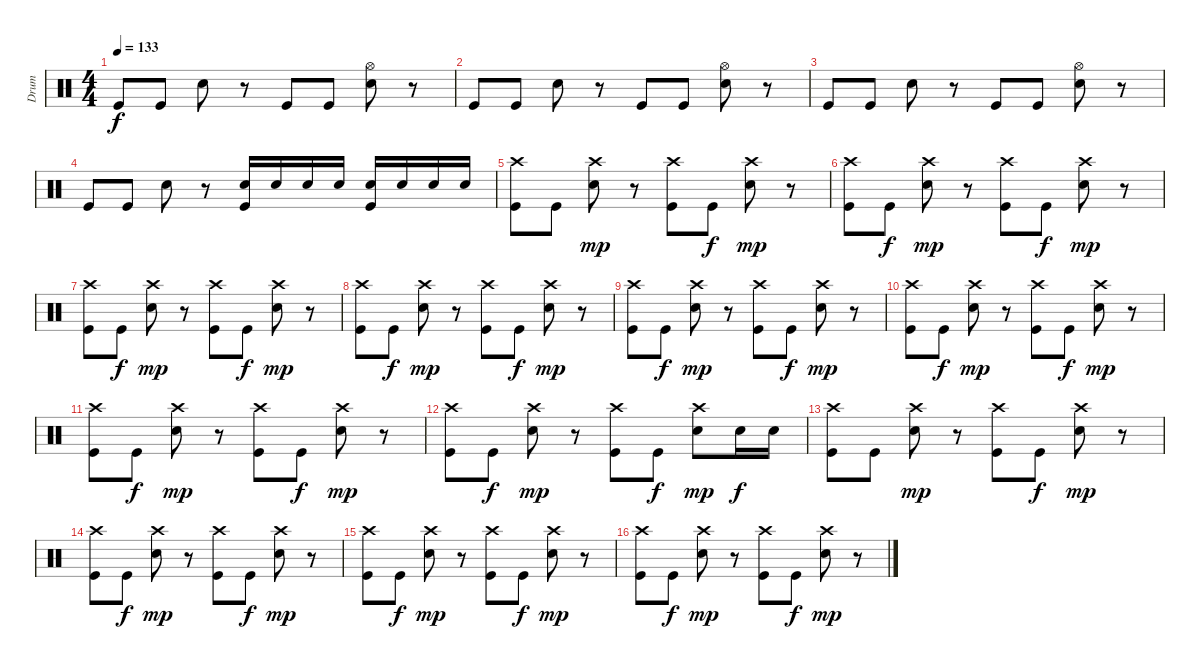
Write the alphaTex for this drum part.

\track ("Drum" "Drum") {instrument percussion}
\staff {score}
\articulation defaults
\ts (4 4)
\tempo 133
\clef neutral
\ks c "Kick (hit)".8{dy f} "Kick (hit)".8 "Snare (hit) 2".8
r.8 "Kick (hit)".8 "Kick (hit)".8 ("Hi-Hat (open)" "Snare (hit) 2").8 r.8 |
"Kick (hit)".8 "Kick (hit)".8 "Snare (hit) 2".8 r.8 "Kick (hit)".8 "Kick (hit)".8 ("Hi-Hat (open)" "Snare (hit) 2").8 r.8 |
"Kick (hit)".8 "Kick (hit)".8 "Snare (hit) 2".8 r.8 "Kick (hit)".8 "Kick (hit)".8 ("Hi-Hat (open)" "Snare (hit) 2").8 r.8 |
"Kick (hit)".8 "Kick (hit)".8 "Snare (hit) 2".8 r.8 ("Snare (hit) 2" "Kick (hit)").16 "Snare (hit) 2".16 "Snare (hit) 2".16 "Snare (hit) 2".16 ("Snare (hit) 2" "Kick (hit)").16 "Snare (hit) 2".16 "Snare (hit) 2".16 "Snare (hit) 2".16 |
("Crash high (hit)" "Kick (hit)").8 "Kick (hit)".8 ("Crash high (hit)" "Snare (hit) 2").8{dy mp} r.8 ("Crash high (hit)" "Kick (hit)").8 "Kick (hit)".8{dy f} ("Crash high (hit)" "Snare (hit) 2").8{dy mp} r.8 |
("Crash high (hit)" "Kick (hit)").8 "Kick (hit)".8{dy f} ("Crash high (hit)" "Snare (hit) 2").8{dy mp} r.8 ("Crash high (hit)" "Kick (hit)").8 "Kick (hit)".8{dy f} ("Crash high (hit)" "Snare (hit) 2").8{dy mp} r.8 |
("Crash high (hit)" "Kick (hit)").8 "Kick (hit)".8{dy f} ("Crash high (hit)" "Snare (hit) 2").8{dy mp} r.8 ("Crash high (hit)" "Kick (hit)").8 "Kick (hit)".8{dy f} ("Crash high (hit)" "Snare (hit) 2").8{dy mp} r.8 |
("Crash high (hit)" "Kick (hit)").8 "Kick (hit)".8{dy f} ("Crash high (hit)" "Snare (hit) 2").8{dy mp} r.8 ("Crash high (hit)" "Kick (hit)").8 "Kick (hit)".8{dy f} ("Crash high (hit)" "Snare (hit) 2").8{dy mp} r.8 |
("Crash high (hit)" "Kick (hit)").8 "Kick (hit)".8{dy f} ("Crash high (hit)" "Snare (hit) 2").8{dy mp} r.8 ("Crash high (hit)" "Kick (hit)").8 "Kick (hit)".8{dy f} ("Crash high (hit)" "Snare (hit) 2").8{dy mp} r.8 |
("Crash high (hit)" "Kick (hit)").8 "Kick (hit)".8{dy f} ("Crash high (hit)" "Snare (hit) 2").8{dy mp} r.8 ("Crash high (hit)" "Kick (hit)").8 "Kick (hit)".8{dy f} ("Crash high (hit)" "Snare (hit) 2").8{dy mp} r.8 |
("Crash high (hit)" "Kick (hit)").8 "Kick (hit)".8{dy f} ("Crash high (hit)" "Snare (hit) 2").8{dy mp} r.8 ("Crash high (hit)" "Kick (hit)").8 "Kick (hit)".8{dy f} ("Crash high (hit)" "Snare (hit) 2").8{dy mp} r.8 |
("Crash high (hit)" "Kick (hit)").8 "Kick (hit)".8{dy f} ("Crash high (hit)" "Snare (hit) 2").8{dy mp} r.8 ("Crash high (hit)" "Kick (hit)").8 "Kick (hit)".8{dy f} ("Crash high (hit)" "Snare (hit) 2").8{dy mp} "Snare (hit) 2".16{dy f} "Snare (hit) 2".16 |
("Crash high (hit)" "Kick (hit)").8 "Kick (hit)".8 ("Crash high (hit)" "Snare (hit) 2").8{dy mp} r.8 ("Crash high (hit)" "Kick (hit)").8 "Kick (hit)".8{dy f} ("Crash high (hit)" "Snare (hit) 2").8{dy mp} r.8 |
("Crash high (hit)" "Kick (hit)").8 "Kick (hit)".8{dy f} ("Crash high (hit)" "Snare (hit) 2").8{dy mp} r.8 ("Crash high (hit)" "Kick (hit)").8 "Kick (hit)".8{dy f} ("Crash high (hit)" "Snare (hit) 2").8{dy mp} r.8 |
("Crash high (hit)" "Kick (hit)").8 "Kick (hit)".8{dy f} ("Crash high (hit)" "Snare (hit) 2").8{dy mp} r.8 ("Crash high (hit)" "Kick (hit)").8 "Kick (hit)".8{dy f} ("Crash high (hit)" "Snare (hit) 2").8{dy mp} r.8 |
("Crash high (hit)" "Kick (hit)").8 "Kick (hit)".8{dy f} ("Crash high (hit)" "Snare (hit) 2").8{dy mp} r.8 ("Crash high (hit)" "Kick (hit)").8 "Kick (hit)".8{dy f} ("Crash high (hit)" "Snare (hit) 2").8{dy mp} r.8
